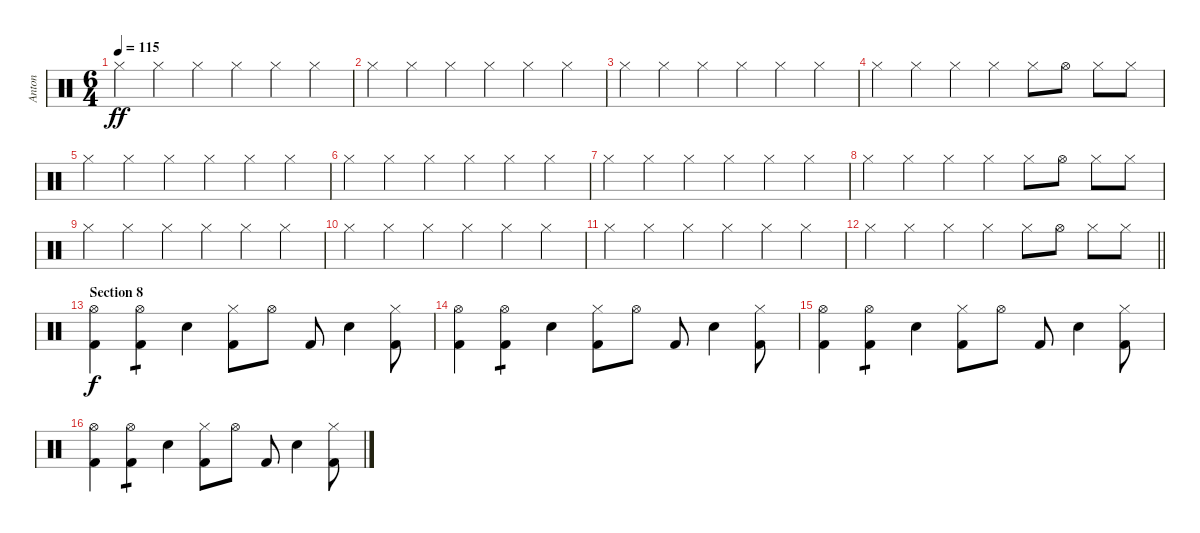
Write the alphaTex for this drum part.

\track ("Anton" "Anton") {instrument percussion}
\staff {score}
\articulation defaults
\ts (6 4)
\tempo 115
\clef neutral
\ks c "Hi-Hat (closed)".4{dy ff} "Hi-Hat (closed)".4 "Hi-Hat (closed)".4 "Hi-Hat (closed)".4 "Hi-Hat (closed)".4 "Hi-Hat (closed)".4
|
"Hi-Hat (closed)".4 "Hi-Hat (closed)".4 "Hi-Hat (closed)".4 "Hi-Hat (closed)".4 "Hi-Hat (closed)".4 "Hi-Hat (closed)".4 |
"Hi-Hat (closed)".4 "Hi-Hat (closed)".4 "Hi-Hat (closed)".4 "Hi-Hat (closed)".4 "Hi-Hat (closed)".4 "Hi-Hat (closed)".4 |
"Hi-Hat (closed)".4 "Hi-Hat (closed)".4 "Hi-Hat (closed)".4 "Hi-Hat (closed)".4 "Hi-Hat (closed)".8 "Hi-Hat (open)".8 "Hi-Hat (closed)".8 "Hi-Hat (closed)".8 |
"Hi-Hat (closed)".4 "Hi-Hat (closed)".4 "Hi-Hat (closed)".4 "Hi-Hat (closed)".4 "Hi-Hat (closed)".4 "Hi-Hat (closed)".4 |
"Hi-Hat (closed)".4 "Hi-Hat (closed)".4 "Hi-Hat (closed)".4 "Hi-Hat (closed)".4 "Hi-Hat (closed)".4 "Hi-Hat (closed)".4 |
"Hi-Hat (closed)".4 "Hi-Hat (closed)".4 "Hi-Hat (closed)".4 "Hi-Hat (closed)".4 "Hi-Hat (closed)".4 "Hi-Hat (closed)".4 |
"Hi-Hat (closed)".4 "Hi-Hat (closed)".4 "Hi-Hat (closed)".4 "Hi-Hat (closed)".4 "Hi-Hat (closed)".8 "Hi-Hat (open)".8 "Hi-Hat (closed)".8 "Hi-Hat (closed)".8 |
"Hi-Hat (closed)".4 "Hi-Hat (closed)".4 "Hi-Hat (closed)".4 "Hi-Hat (closed)".4 "Hi-Hat (closed)".4 "Hi-Hat (closed)".4 |
"Hi-Hat (closed)".4 "Hi-Hat (closed)".4 "Hi-Hat (closed)".4 "Hi-Hat (closed)".4 "Hi-Hat (closed)".4 "Hi-Hat (closed)".4 |
"Hi-Hat (closed)".4 "Hi-Hat (closed)".4 "Hi-Hat (closed)".4 "Hi-Hat (closed)".4 "Hi-Hat (closed)".4 "Hi-Hat (closed)".4 |
\barLineRight lightlight "Hi-Hat (closed)".4 "Hi-Hat (closed)".4 "Hi-Hat (closed)".4 "Hi-Hat (closed)".4 "Hi-Hat (closed)".8 "Hi-Hat (open)".8 "Hi-Hat (closed)".8 "Hi-Hat (closed)".8
|
\section ("" "Section 8")
("Hi-Hat (open)" "Kick (hit) 2").4{dy f} ("Hi-Hat (open)" "Kick (hit) 2").4{tp 1} "Electric Snare (hit)".4 ("Hi-Hat (closed)" "Kick (hit) 2").8 "Hi-Hat (open)".8 "Kick (hit) 2".8 "Electric Snare (hit)".4 ("Hi-Hat (closed)" "Kick (hit) 2").8 |
("Hi-Hat (open)" "Kick (hit) 2").4 ("Hi-Hat (open)" "Kick (hit) 2").4{tp 1} "Electric Snare (hit)".4 ("Hi-Hat (closed)" "Kick (hit) 2").8 "Hi-Hat (open)".8 "Kick (hit) 2".8 "Electric Snare (hit)".4 ("Hi-Hat (closed)" "Kick (hit) 2").8 |
("Hi-Hat (open)" "Kick (hit) 2").4 ("Hi-Hat (open)" "Kick (hit) 2").4{tp 1} "Electric Snare (hit)".4 ("Hi-Hat (closed)" "Kick (hit) 2").8 "Hi-Hat (open)".8 "Kick (hit) 2".8 "Electric Snare (hit)".4 ("Hi-Hat (closed)" "Kick (hit) 2").8 |
("Hi-Hat (open)" "Kick (hit) 2").4 ("Hi-Hat (open)" "Kick (hit) 2").4{tp 1} "Electric Snare (hit)".4 ("Hi-Hat (closed)" "Kick (hit) 2").8 "Hi-Hat (open)".8 "Kick (hit) 2".8 "Electric Snare (hit)".4 ("Hi-Hat (closed)" "Kick (hit) 2").8
